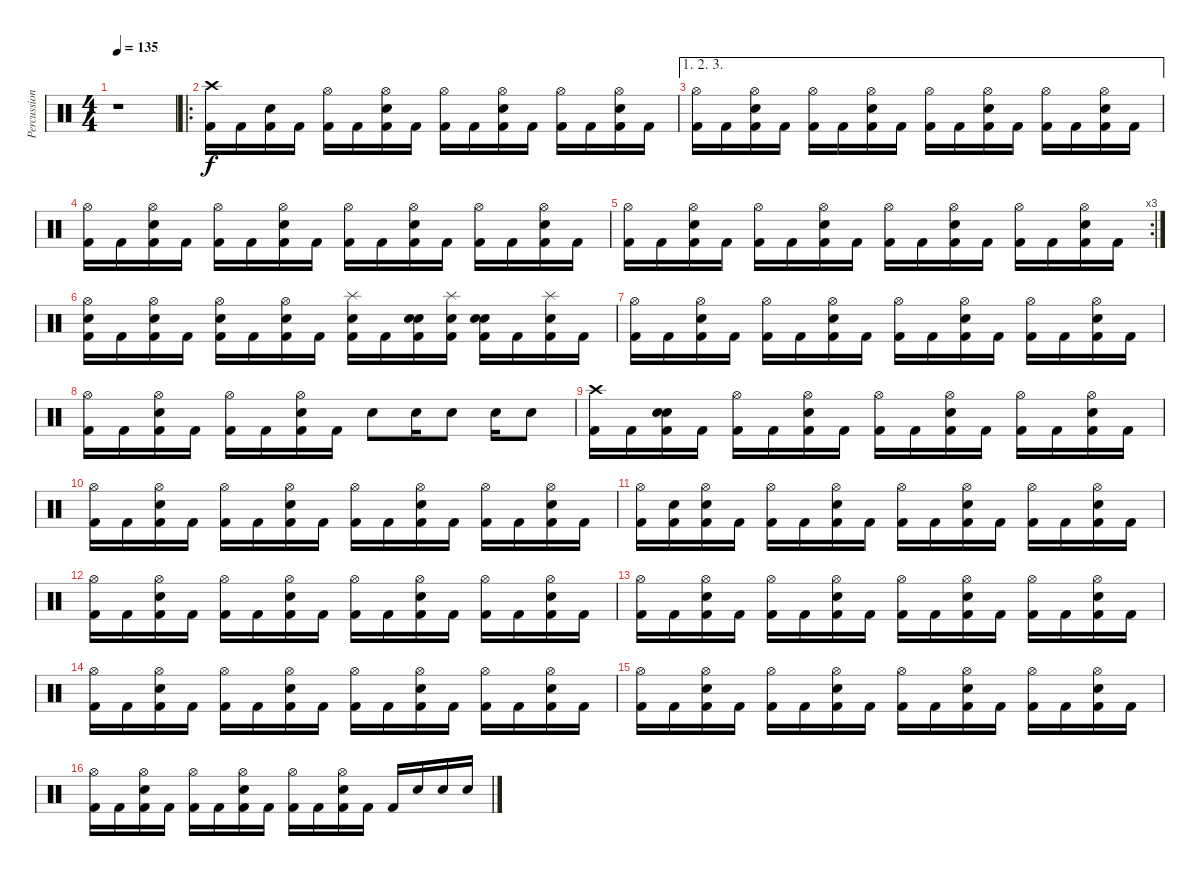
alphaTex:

\track ("Percussion" "Percussion") {instrument percussion}
\staff {score}
\articulation defaults
\ts (4 4)
\tempo 135
\clef neutral
\ks c
r.1{dy f} |
\ro
("Crash high (hit)" "Kick (hit) 2").16 "Kick (hit) 2".16 ("Snare (hit) 2" "Kick (hit) 2").16 "Kick (hit) 2".16 ("Hi-Hat (open)" "Kick (hit) 2").16 "Kick (hit) 2".16 ("Hi-Hat (open)" "Snare (hit) 2" "Kick (hit) 2").16 "Kick (hit) 2".16 ("Hi-Hat (open)" "Kick (hit) 2").16 "Kick (hit) 2".16 ("Hi-Hat (open)" "Snare (hit) 2" "Kick (hit) 2").16 "Kick (hit) 2".16 ("Hi-Hat (open)" "Kick (hit) 2").16 "Kick (hit) 2".16 ("Hi-Hat (open)" "Snare (hit) 2" "Kick (hit) 2").16 "Kick (hit) 2".16 |
\ae (1 2 3)
("Hi-Hat (open)" "Kick (hit) 2").16 "Kick (hit) 2".16 ("Hi-Hat (open)" "Snare (hit) 2" "Kick (hit) 2").16 "Kick (hit) 2".16 ("Hi-Hat (open)" "Kick (hit) 2").16 "Kick (hit) 2".16 ("Hi-Hat (open)" "Snare (hit) 2" "Kick (hit) 2").16 "Kick (hit) 2".16 ("Hi-Hat (open)" "Kick (hit) 2").16 "Kick (hit) 2".16 ("Hi-Hat (open)" "Snare (hit) 2" "Kick (hit) 2").16 "Kick (hit) 2".16 ("Hi-Hat (open)" "Kick (hit) 2").16 "Kick (hit) 2".16 ("Hi-Hat (open)" "Snare (hit) 2" "Kick (hit) 2").16 "Kick (hit) 2".16 |
("Hi-Hat (open)" "Kick (hit) 2").16 "Kick (hit) 2".16 ("Hi-Hat (open)" "Snare (hit) 2" "Kick (hit) 2").16 "Kick (hit) 2".16 ("Hi-Hat (open)" "Kick (hit) 2").16 "Kick (hit) 2".16 ("Hi-Hat (open)" "Snare (hit) 2" "Kick (hit) 2").16 "Kick (hit) 2".16 ("Hi-Hat (open)" "Kick (hit) 2").16 "Kick (hit) 2".16 ("Hi-Hat (open)" "Snare (hit) 2" "Kick (hit) 2").16 "Kick (hit) 2".16 ("Hi-Hat (open)" "Kick (hit) 2").16 "Kick (hit) 2".16 ("Hi-Hat (open)" "Snare (hit) 2" "Kick (hit) 2").16 "Kick (hit) 2".16 |
\rc 3
("Hi-Hat (open)" "Kick (hit) 2").16 "Kick (hit) 2".16 ("Hi-Hat (open)" "Snare (hit) 2" "Kick (hit) 2").16 "Kick (hit) 2".16 ("Hi-Hat (open)" "Kick (hit) 2").16 "Kick (hit) 2".16 ("Hi-Hat (open)" "Snare (hit) 2" "Kick (hit) 2").16 "Kick (hit) 2".16 ("Hi-Hat (open)" "Kick (hit) 2").16 "Kick (hit) 2".16 ("Hi-Hat (open)" "Snare (hit) 2" "Kick (hit) 2").16 "Kick (hit) 2".16 ("Hi-Hat (open)" "Kick (hit) 2").16 "Kick (hit) 2".16 ("Hi-Hat (open)" "Snare (hit) 2" "Kick (hit) 2").16 "Kick (hit) 2".16 |
("Hi-Hat (open)" "Snare (hit)" "Kick (hit) 2").16 "Kick (hit) 2".16 ("Hi-Hat (open)" "Snare (hit) 2" "Kick (hit) 2").16 "Kick (hit) 2".16 ("Hi-Hat (open)" "Snare (hit)" "Kick (hit) 2").16 "Kick (hit) 2".16 ("Hi-Hat (open)" "Snare (hit) 2" "Kick (hit) 2").16 "Kick (hit) 2".16 ("Splash (hit)" "Snare (hit) 2" "Kick (hit) 2").16 "Kick (hit) 2".16 ("Snare (hit)" "Snare (hit)" "Kick (hit) 2").16 ("Splash (hit)" "Snare (hit) 2" "Kick (hit) 2").16 ("Snare (hit)" "Snare (hit)" "Kick (hit) 2").16 "Kick (hit) 2".16 ("Splash (hit)" "Snare (hit) 2" "Kick (hit) 2").16 "Kick (hit) 2".16 |
("Hi-Hat (open)" "Kick (hit) 2").16 "Kick (hit) 2".16 ("Hi-Hat (open)" "Snare (hit) 2" "Kick (hit) 2").16 "Kick (hit) 2".16 ("Hi-Hat (open)" "Kick (hit) 2").16 "Kick (hit) 2".16 ("Hi-Hat (open)" "Snare (hit) 2" "Kick (hit) 2").16 "Kick (hit) 2".16 ("Hi-Hat (open)" "Kick (hit) 2").16 "Kick (hit) 2".16 ("Hi-Hat (open)" "Snare (hit) 2" "Kick (hit) 2").16 "Kick (hit) 2".16 ("Hi-Hat (open)" "Kick (hit) 2").16 "Kick (hit) 2".16 ("Hi-Hat (open)" "Snare (hit) 2" "Kick (hit) 2").16 "Kick (hit) 2".16 |
("Hi-Hat (open)" "Kick (hit) 2").16 "Kick (hit) 2".16 ("Hi-Hat (open)" "Snare (hit) 2" "Kick (hit) 2").16 "Kick (hit) 2".16 ("Hi-Hat (open)" "Kick (hit) 2").16 "Kick (hit) 2".16 ("Hi-Hat (open)" "Snare (hit) 2" "Kick (hit) 2").16 "Kick (hit) 2".16 "Snare (hit) 2".8 "Snare (hit) 2".16 "Snare (hit) 2".8 "Snare (hit) 2".16 "Snare (hit) 2".8 |
("Crash high (hit)" "Kick (hit) 2").16 "Kick (hit) 2".16 ("Snare (hit)" "Snare (hit) 2" "Kick (hit) 2").16 "Kick (hit) 2".16 ("Hi-Hat (open)" "Kick (hit) 2").16 "Kick (hit) 2".16 ("Hi-Hat (open)" "Snare (hit) 2" "Kick (hit) 2").16 "Kick (hit) 2".16 ("Hi-Hat (open)" "Kick (hit) 2").16 "Kick (hit) 2".16 ("Hi-Hat (open)" "Snare (hit) 2" "Kick (hit) 2").16 "Kick (hit) 2".16 ("Hi-Hat (open)" "Kick (hit) 2").16 "Kick (hit) 2".16 ("Hi-Hat (open)" "Snare (hit) 2" "Kick (hit) 2").16 "Kick (hit) 2".16 |
("Hi-Hat (open)" "Kick (hit) 2").16 "Kick (hit) 2".16 ("Hi-Hat (open)" "Snare (hit) 2" "Kick (hit) 2").16 "Kick (hit) 2".16 ("Hi-Hat (open)" "Kick (hit) 2").16 "Kick (hit) 2".16 ("Hi-Hat (open)" "Snare (hit) 2" "Kick (hit) 2").16 "Kick (hit) 2".16 ("Hi-Hat (open)" "Kick (hit) 2").16 "Kick (hit) 2".16 ("Hi-Hat (open)" "Snare (hit) 2" "Kick (hit) 2").16 "Kick (hit) 2".16 ("Hi-Hat (open)" "Kick (hit) 2").16 "Kick (hit) 2".16 ("Hi-Hat (open)" "Snare (hit) 2" "Kick (hit) 2").16 "Kick (hit) 2".16 |
("Hi-Hat (open)" "Kick (hit) 2").16 ("Snare (hit)" "Kick (hit) 2").16 ("Hi-Hat (open)" "Snare (hit) 2" "Kick (hit) 2").16 "Kick (hit) 2".16 ("Hi-Hat (open)" "Kick (hit) 2").16 "Kick (hit) 2".16 ("Hi-Hat (open)" "Snare (hit) 2" "Kick (hit) 2").16 "Kick (hit) 2".16 ("Hi-Hat (open)" "Kick (hit) 2").16 "Kick (hit) 2".16 ("Hi-Hat (open)" "Snare (hit) 2" "Kick (hit) 2").16 "Kick (hit) 2".16 ("Hi-Hat (open)" "Kick (hit) 2").16 "Kick (hit) 2".16 ("Hi-Hat (open)" "Snare (hit) 2" "Kick (hit) 2").16 "Kick (hit) 2".16 |
("Hi-Hat (open)" "Kick (hit) 2").16 "Kick (hit) 2".16 ("Hi-Hat (open)" "Snare (hit) 2" "Kick (hit) 2").16 "Kick (hit) 2".16 ("Hi-Hat (open)" "Kick (hit) 2").16 "Kick (hit) 2".16 ("Hi-Hat (open)" "Snare (hit) 2" "Kick (hit) 2").16 "Kick (hit) 2".16 ("Hi-Hat (open)" "Kick (hit) 2").16 "Kick (hit) 2".16 ("Hi-Hat (open)" "Snare (hit) 2" "Kick (hit) 2").16 "Kick (hit) 2".16 ("Hi-Hat (open)" "Kick (hit) 2").16 "Kick (hit) 2".16 ("Hi-Hat (open)" "Snare (hit) 2" "Kick (hit) 2").16 "Kick (hit) 2".16 |
("Hi-Hat (open)" "Kick (hit) 2").16 "Kick (hit) 2".16 ("Hi-Hat (open)" "Snare (hit) 2" "Kick (hit) 2").16 "Kick (hit) 2".16 ("Hi-Hat (open)" "Kick (hit) 2").16 "Kick (hit) 2".16 ("Hi-Hat (open)" "Snare (hit) 2" "Kick (hit) 2").16 "Kick (hit) 2".16 ("Hi-Hat (open)" "Kick (hit) 2").16 "Kick (hit) 2".16 ("Hi-Hat (open)" "Snare (hit) 2" "Kick (hit) 2").16 "Kick (hit) 2".16 ("Hi-Hat (open)" "Kick (hit) 2").16 "Kick (hit) 2".16 ("Hi-Hat (open)" "Snare (hit) 2" "Kick (hit) 2").16 "Kick (hit) 2".16 |
("Hi-Hat (open)" "Kick (hit) 2").16 "Kick (hit) 2".16 ("Hi-Hat (open)" "Snare (hit) 2" "Kick (hit) 2").16 "Kick (hit) 2".16 ("Hi-Hat (open)" "Kick (hit) 2").16 "Kick (hit) 2".16 ("Hi-Hat (open)" "Snare (hit) 2" "Kick (hit) 2").16 "Kick (hit) 2".16 ("Hi-Hat (open)" "Kick (hit) 2").16 "Kick (hit) 2".16 ("Hi-Hat (open)" "Snare (hit) 2" "Kick (hit) 2").16 "Kick (hit) 2".16 ("Hi-Hat (open)" "Kick (hit) 2").16 "Kick (hit) 2".16 ("Hi-Hat (open)" "Snare (hit) 2" "Kick (hit) 2").16 "Kick (hit) 2".16 |
("Hi-Hat (open)" "Kick (hit) 2").16 "Kick (hit) 2".16 ("Hi-Hat (open)" "Snare (hit) 2" "Kick (hit) 2").16 "Kick (hit) 2".16 ("Hi-Hat (open)" "Kick (hit) 2").16 "Kick (hit) 2".16 ("Hi-Hat (open)" "Snare (hit) 2" "Kick (hit) 2").16 "Kick (hit) 2".16 ("Hi-Hat (open)" "Kick (hit) 2").16 "Kick (hit) 2".16 ("Hi-Hat (open)" "Snare (hit) 2" "Kick (hit) 2").16 "Kick (hit) 2".16 ("Hi-Hat (open)" "Kick (hit) 2").16 "Kick (hit) 2".16 ("Hi-Hat (open)" "Snare (hit) 2" "Kick (hit) 2").16 "Kick (hit) 2".16 |
("Hi-Hat (open)" "Kick (hit) 2").16 "Kick (hit) 2".16 ("Hi-Hat (open)" "Snare (hit) 2" "Kick (hit) 2").16 "Kick (hit) 2".16 ("Hi-Hat (open)" "Kick (hit) 2").16 "Kick (hit) 2".16 ("Hi-Hat (open)" "Snare (hit) 2" "Kick (hit) 2").16 "Kick (hit) 2".16 ("Hi-Hat (open)" "Kick (hit) 2").16 "Kick (hit) 2".16 ("Hi-Hat (open)" "Snare (hit) 2" "Kick (hit) 2").16 "Kick (hit) 2".16 "Kick (hit) 2".16 "Snare (hit) 2".16 "Snare (hit) 2".16 "Snare (hit) 2".16
